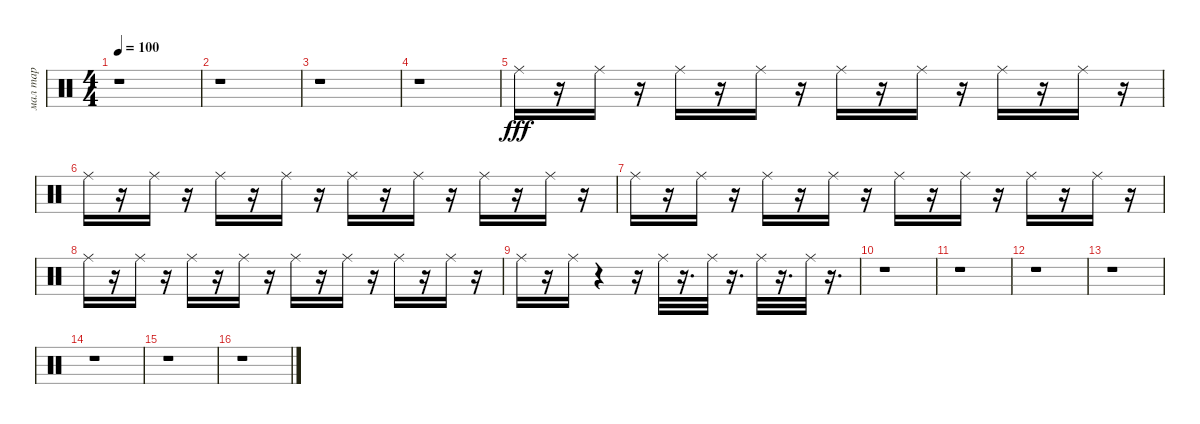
\track ("мал тар" "мал тар") {instrument percussion}
\staff {score}
\articulation defaults
\ts (4 4)
\tempo 100
\clef neutral
\ks c
r.1{dy fff} |
r.1 |
r.1 |
r.1 |
"Ride (middle)".16 r.16 "Ride (middle)".16 r.16 "Ride (middle)".16 r.16 "Ride (middle)".16 r.16 "Ride (middle)".16 r.16 "Ride (middle)".16 r.16 "Ride (middle)".16 r.16 "Ride (middle)".16 r.16 |
"Ride (middle)".16 r.16 "Ride (middle)".16 r.16 "Ride (middle)".16 r.16 "Ride (middle)".16 r.16 "Ride (middle)".16 r.16 "Ride (middle)".16 r.16 "Ride (middle)".16 r.16 "Ride (middle)".16 r.16 |
"Ride (middle)".16 r.16 "Ride (middle)".16 r.16 "Ride (middle)".16 r.16 "Ride (middle)".16 r.16 "Ride (middle)".16 r.16 "Ride (middle)".16 r.16 "Ride (middle)".16 r.16 "Ride (middle)".16 r.16 |
"Ride (middle)".16 r.16 "Ride (middle)".16 r.16 "Ride (middle)".16 r.16 "Ride (middle)".16 r.16 "Ride (middle)".16 r.16 "Ride (middle)".16 r.16 "Ride (middle)".16 r.16 "Ride (middle)".16 r.16 |
"Ride (middle)".16 r.16 "Ride (middle)".16 r.4 r.16 "Ride (middle)".32 r.16{d} "Ride (middle)".32 r.16{d} "Ride (middle)".32 r.16{d} "Ride (middle)".32 r.16{d} |
r.1 |
r.1 |
r.1 |
r.1 |
r.1 |
r.1 |
r.1
